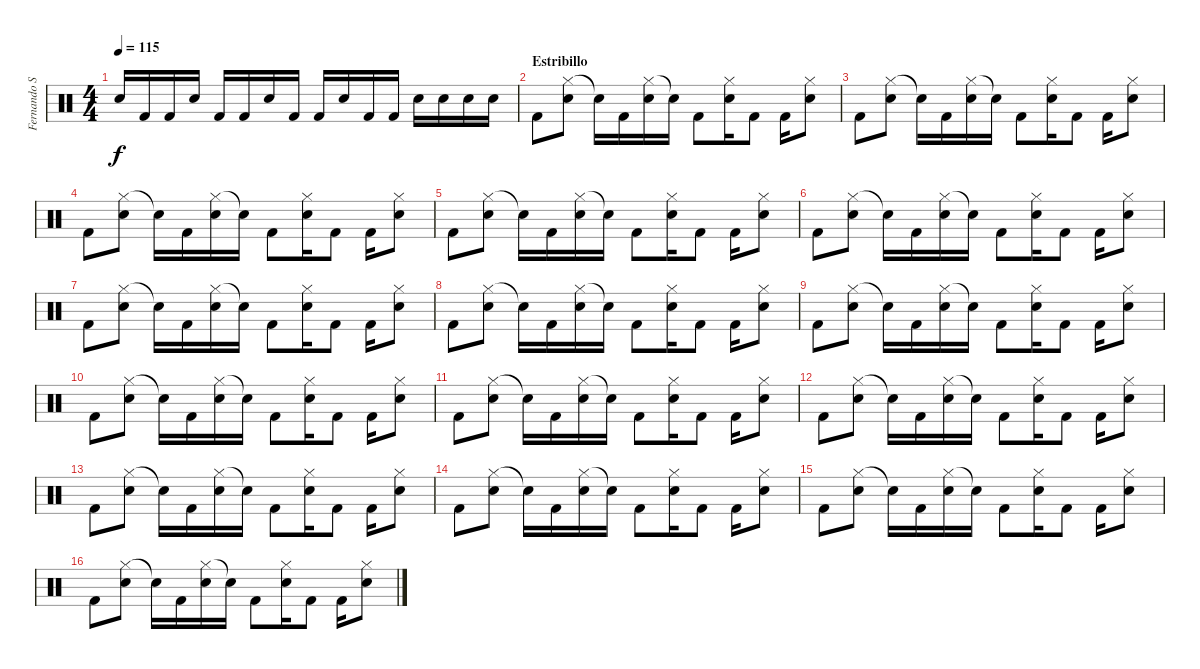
\track ("Fernando Scarcella" "Fernando S") {instrument percussion}
\staff {score}
\articulation defaults
\ts (4 4)
\tempo 115
\clef neutral
\ks c "Snare (hit) 2".16{dy f} "Kick (hit) 2".16 "Kick (hit) 2".16 "Snare (hit) 2".16 "Kick (hit) 2".16 "Kick (hit) 2".16 "Snare (hit) 2".16 "Kick (hit) 2".16 "Kick (hit) 2".16 "Snare (hit) 2".16 "Kick (hit) 2".16 "Kick (hit) 2".16 "Snare (hit) 2".16 "Snare (hit) 2".16 "Snare (hit) 2".16 "Snare (hit) 2".16
|
\section ("" "Estribillo")
"Kick (hit) 2".8 ("Hi-Hat (closed)" "Snare (hit) 2").8 "Snare (hit)"{t}.16 "Kick (hit) 2".16 ("Hi-Hat (closed)" "Snare (hit) 2").16 "Snare (hit)"{t}.16 "Kick (hit) 2".8 ("Hi-Hat (closed)" "Snare (hit) 2").16 "Kick (hit) 2".8 "Kick (hit) 2".16 ("Hi-Hat (closed)" "Snare (hit) 2").8 |
"Kick (hit) 2".8 ("Hi-Hat (closed)" "Snare (hit) 2").8 "Snare (hit)"{t}.16 "Kick (hit) 2".16 ("Hi-Hat (closed)" "Snare (hit) 2").16 "Snare (hit)"{t}.16 "Kick (hit) 2".8 ("Hi-Hat (closed)" "Snare (hit) 2").16 "Kick (hit) 2".8 "Kick (hit) 2".16 ("Hi-Hat (closed)" "Snare (hit) 2").8 |
"Kick (hit) 2".8 ("Hi-Hat (closed)" "Snare (hit) 2").8 "Snare (hit)"{t}.16 "Kick (hit) 2".16 ("Hi-Hat (closed)" "Snare (hit) 2").16 "Snare (hit)"{t}.16 "Kick (hit) 2".8 ("Hi-Hat (closed)" "Snare (hit) 2").16 "Kick (hit) 2".8 "Kick (hit) 2".16 ("Hi-Hat (closed)" "Snare (hit) 2").8 |
"Kick (hit) 2".8 ("Hi-Hat (closed)" "Snare (hit) 2").8 "Snare (hit)"{t}.16 "Kick (hit) 2".16 ("Hi-Hat (closed)" "Snare (hit) 2").16 "Snare (hit)"{t}.16 "Kick (hit) 2".8 ("Hi-Hat (closed)" "Snare (hit) 2").16 "Kick (hit) 2".8 "Kick (hit) 2".16 ("Hi-Hat (closed)" "Snare (hit) 2").8 |
"Kick (hit) 2".8 ("Hi-Hat (closed)" "Snare (hit) 2").8 "Snare (hit)"{t}.16 "Kick (hit) 2".16 ("Hi-Hat (closed)" "Snare (hit) 2").16 "Snare (hit)"{t}.16 "Kick (hit) 2".8 ("Hi-Hat (closed)" "Snare (hit) 2").16 "Kick (hit) 2".8 "Kick (hit) 2".16 ("Hi-Hat (closed)" "Snare (hit) 2").8 |
"Kick (hit) 2".8 ("Hi-Hat (closed)" "Snare (hit) 2").8 "Snare (hit)"{t}.16 "Kick (hit) 2".16 ("Hi-Hat (closed)" "Snare (hit) 2").16 "Snare (hit)"{t}.16 "Kick (hit) 2".8 ("Hi-Hat (closed)" "Snare (hit) 2").16 "Kick (hit) 2".8 "Kick (hit) 2".16 ("Hi-Hat (closed)" "Snare (hit) 2").8 |
"Kick (hit) 2".8 ("Hi-Hat (closed)" "Snare (hit) 2").8 "Snare (hit)"{t}.16 "Kick (hit) 2".16 ("Hi-Hat (closed)" "Snare (hit) 2").16 "Snare (hit)"{t}.16 "Kick (hit) 2".8 ("Hi-Hat (closed)" "Snare (hit) 2").16 "Kick (hit) 2".8 "Kick (hit) 2".16 ("Hi-Hat (closed)" "Snare (hit) 2").8 |
"Kick (hit) 2".8 ("Hi-Hat (closed)" "Snare (hit) 2").8 "Snare (hit)"{t}.16 "Kick (hit) 2".16 ("Hi-Hat (closed)" "Snare (hit) 2").16 "Snare (hit)"{t}.16 "Kick (hit) 2".8 ("Hi-Hat (closed)" "Snare (hit) 2").16 "Kick (hit) 2".8 "Kick (hit) 2".16 ("Hi-Hat (closed)" "Snare (hit) 2").8 |
"Kick (hit) 2".8 ("Hi-Hat (closed)" "Snare (hit) 2").8 "Snare (hit)"{t}.16 "Kick (hit) 2".16 ("Hi-Hat (closed)" "Snare (hit) 2").16 "Snare (hit)"{t}.16 "Kick (hit) 2".8 ("Hi-Hat (closed)" "Snare (hit) 2").16 "Kick (hit) 2".8 "Kick (hit) 2".16 ("Hi-Hat (closed)" "Snare (hit) 2").8 |
"Kick (hit) 2".8 ("Hi-Hat (closed)" "Snare (hit) 2").8 "Snare (hit)"{t}.16 "Kick (hit) 2".16 ("Hi-Hat (closed)" "Snare (hit) 2").16 "Snare (hit)"{t}.16 "Kick (hit) 2".8 ("Hi-Hat (closed)" "Snare (hit) 2").16 "Kick (hit) 2".8 "Kick (hit) 2".16 ("Hi-Hat (closed)" "Snare (hit) 2").8 |
"Kick (hit) 2".8 ("Hi-Hat (closed)" "Snare (hit) 2").8 "Snare (hit)"{t}.16 "Kick (hit) 2".16 ("Hi-Hat (closed)" "Snare (hit) 2").16 "Snare (hit)"{t}.16 "Kick (hit) 2".8 ("Hi-Hat (closed)" "Snare (hit) 2").16 "Kick (hit) 2".8 "Kick (hit) 2".16 ("Hi-Hat (closed)" "Snare (hit) 2").8 |
"Kick (hit) 2".8 ("Hi-Hat (closed)" "Snare (hit) 2").8 "Snare (hit)"{t}.16 "Kick (hit) 2".16 ("Hi-Hat (closed)" "Snare (hit) 2").16 "Snare (hit)"{t}.16 "Kick (hit) 2".8 ("Hi-Hat (closed)" "Snare (hit) 2").16 "Kick (hit) 2".8 "Kick (hit) 2".16 ("Hi-Hat (closed)" "Snare (hit) 2").8 |
"Kick (hit) 2".8 ("Hi-Hat (closed)" "Snare (hit) 2").8 "Snare (hit)"{t}.16 "Kick (hit) 2".16 ("Hi-Hat (closed)" "Snare (hit) 2").16 "Snare (hit)"{t}.16 "Kick (hit) 2".8 ("Hi-Hat (closed)" "Snare (hit) 2").16 "Kick (hit) 2".8 "Kick (hit) 2".16 ("Hi-Hat (closed)" "Snare (hit) 2").8 |
"Kick (hit) 2".8 ("Hi-Hat (closed)" "Snare (hit) 2").8 "Snare (hit)"{t}.16 "Kick (hit) 2".16 ("Hi-Hat (closed)" "Snare (hit) 2").16 "Snare (hit)"{t}.16 "Kick (hit) 2".8 ("Hi-Hat (closed)" "Snare (hit) 2").16 "Kick (hit) 2".8 "Kick (hit) 2".16 ("Hi-Hat (closed)" "Snare (hit) 2").8 |
"Kick (hit) 2".8 ("Hi-Hat (closed)" "Snare (hit) 2").8 "Snare (hit)"{t}.16 "Kick (hit) 2".16 ("Hi-Hat (closed)" "Snare (hit) 2").16 "Snare (hit)"{t}.16 "Kick (hit) 2".8 ("Hi-Hat (closed)" "Snare (hit) 2").16 "Kick (hit) 2".8 "Kick (hit) 2".16 ("Hi-Hat (closed)" "Snare (hit) 2").8
